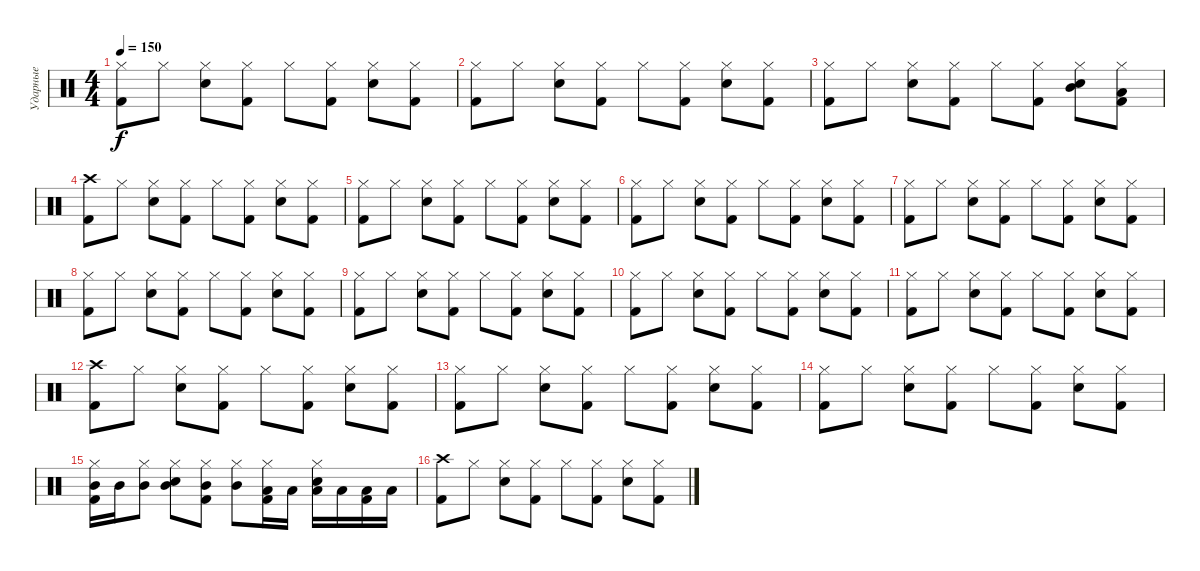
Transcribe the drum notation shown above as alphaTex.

\track ("Ударные" "Ударные") {instrument percussion}
\staff {score}
\articulation defaults
\ts (4 4)
\tempo 150
\clef neutral
\ks c
("Hi-Hat (closed)" "Kick (hit) 2").8{dy f} "Hi-Hat (closed)".8 ("Hi-Hat (closed)" "Snare (hit) 2").8 ("Hi-Hat (closed)" "Kick (hit) 2").8 "Hi-Hat (closed)".8 ("Hi-Hat (closed)" "Kick (hit) 2").8 ("Hi-Hat (closed)" "Snare (hit) 2").8 ("Hi-Hat (closed)" "Kick (hit) 2").8 |
("Hi-Hat (closed)" "Kick (hit) 2").8 "Hi-Hat (closed)".8 ("Hi-Hat (closed)" "Snare (hit) 2").8 ("Hi-Hat (closed)" "Kick (hit) 2").8 "Hi-Hat (closed)".8 ("Hi-Hat (closed)" "Kick (hit) 2").8 ("Hi-Hat (closed)" "Snare (hit) 2").8 ("Hi-Hat (closed)" "Kick (hit) 2").8 |
("Hi-Hat (closed)" "Kick (hit) 2").8 "Hi-Hat (closed)".8 ("Hi-Hat (closed)" "Snare (hit) 2").8 ("Hi-Hat (closed)" "Kick (hit) 2").8 "Hi-Hat (closed)".8 ("Hi-Hat (closed)" "Kick (hit) 2").8 ("Hi-Hat (closed)" "Mid Tom (hit)" "Snare (hit) 2").8 ("Hi-Hat (closed)" "Low Tom (hit)" "Kick (hit) 2").8 |
("Crash high (hit)" "Kick (hit) 2").8 "Hi-Hat (closed)".8 ("Snare (hit) 2" "Hi-Hat (closed)").8 ("Hi-Hat (closed)" "Kick (hit) 2").8 "Hi-Hat (closed)".8 ("Hi-Hat (closed)" "Kick (hit) 2").8 ("Snare (hit) 2" "Hi-Hat (closed)").8 ("Hi-Hat (closed)" "Kick (hit) 2").8 |
("Hi-Hat (closed)" "Kick (hit) 2").8 "Hi-Hat (closed)".8 ("Snare (hit) 2" "Hi-Hat (closed)").8 ("Hi-Hat (closed)" "Kick (hit) 2").8 "Hi-Hat (closed)".8 ("Hi-Hat (closed)" "Kick (hit) 2").8 ("Snare (hit) 2" "Hi-Hat (closed)").8 ("Hi-Hat (closed)" "Kick (hit) 2").8 |
("Hi-Hat (closed)" "Kick (hit) 2").8 "Hi-Hat (closed)".8 ("Snare (hit) 2" "Hi-Hat (closed)").8 ("Hi-Hat (closed)" "Kick (hit) 2").8 "Hi-Hat (closed)".8 ("Hi-Hat (closed)" "Kick (hit) 2").8 ("Snare (hit) 2" "Hi-Hat (closed)").8 ("Hi-Hat (closed)" "Kick (hit) 2").8 |
("Hi-Hat (closed)" "Kick (hit) 2").8 "Hi-Hat (closed)".8 ("Snare (hit) 2" "Hi-Hat (closed)").8 ("Hi-Hat (closed)" "Kick (hit) 2").8 "Hi-Hat (closed)".8 ("Hi-Hat (closed)" "Kick (hit) 2").8 ("Snare (hit) 2" "Hi-Hat (closed)").8 ("Hi-Hat (closed)" "Kick (hit) 2").8 |
("Hi-Hat (closed)" "Kick (hit) 2").8 "Hi-Hat (closed)".8 ("Snare (hit) 2" "Hi-Hat (closed)").8 ("Hi-Hat (closed)" "Kick (hit) 2").8 "Hi-Hat (closed)".8 ("Hi-Hat (closed)" "Kick (hit) 2").8 ("Snare (hit) 2" "Hi-Hat (closed)").8 ("Hi-Hat (closed)" "Kick (hit) 2").8 |
("Hi-Hat (closed)" "Kick (hit) 2").8 "Hi-Hat (closed)".8 ("Snare (hit) 2" "Hi-Hat (closed)").8 ("Hi-Hat (closed)" "Kick (hit) 2").8 "Hi-Hat (closed)".8 ("Hi-Hat (closed)" "Kick (hit) 2").8 ("Snare (hit) 2" "Hi-Hat (closed)").8 ("Hi-Hat (closed)" "Kick (hit) 2").8 |
("Hi-Hat (closed)" "Kick (hit) 2").8 "Hi-Hat (closed)".8 ("Snare (hit) 2" "Hi-Hat (closed)").8 ("Hi-Hat (closed)" "Kick (hit) 2").8 "Hi-Hat (closed)".8 ("Hi-Hat (closed)" "Kick (hit) 2").8 ("Snare (hit) 2" "Hi-Hat (closed)").8 ("Hi-Hat (closed)" "Kick (hit) 2").8 |
("Hi-Hat (closed)" "Kick (hit) 2").8 "Hi-Hat (closed)".8 ("Snare (hit) 2" "Hi-Hat (closed)").8 ("Hi-Hat (closed)" "Kick (hit) 2").8 "Hi-Hat (closed)".8 ("Hi-Hat (closed)" "Kick (hit) 2").8 ("Snare (hit) 2" "Hi-Hat (closed)").8 ("Hi-Hat (closed)" "Kick (hit) 2").8 |
("Crash high (hit)" "Kick (hit) 2").8 "Hi-Hat (closed)".8 ("Hi-Hat (closed)" "Snare (hit) 2").8 ("Hi-Hat (closed)" "Kick (hit) 2").8 "Hi-Hat (closed)".8 ("Hi-Hat (closed)" "Kick (hit) 2").8 ("Hi-Hat (closed)" "Snare (hit) 2").8 ("Hi-Hat (closed)" "Kick (hit) 2").8 |
("Hi-Hat (closed)" "Kick (hit) 2").8 "Hi-Hat (closed)".8 ("Hi-Hat (closed)" "Snare (hit) 2").8 ("Hi-Hat (closed)" "Kick (hit) 2").8 "Hi-Hat (closed)".8 ("Hi-Hat (closed)" "Kick (hit) 2").8 ("Hi-Hat (closed)" "Snare (hit) 2").8 ("Hi-Hat (closed)" "Kick (hit) 2").8 |
("Hi-Hat (closed)" "Kick (hit) 2").8 "Hi-Hat (closed)".8 ("Hi-Hat (closed)" "Snare (hit) 2").8 ("Hi-Hat (closed)" "Kick (hit) 2").8 "Hi-Hat (closed)".8 ("Hi-Hat (closed)" "Kick (hit) 2").8 ("Hi-Hat (closed)" "Snare (hit) 2").8 ("Hi-Hat (closed)" "Kick (hit) 2").8 |
("Mid Tom (hit)" "Hi-Hat (closed)" "Kick (hit) 2").16 "Mid Tom (hit)".16 ("Mid Tom (hit)" "Hi-Hat (closed)").8 ("Mid Tom (hit)" "Hi-Hat (closed)" "Snare (hit) 2").8 ("Mid Tom (hit)" "Hi-Hat (closed)" "Kick (hit) 2").8 ("Mid Tom (hit)" "Hi-Hat (closed)").8 ("Low Tom (hit)" "Hi-Hat (closed)" "Kick (hit) 2").16 "Low Tom (hit)".16 ("Low Tom (hit)" "Hi-Hat (closed)" "Snare (hit) 2").16 "Low Tom (hit)".16 ("Low Tom (hit)" "Kick (hit) 2").16 "Low Tom (hit)".16 |
("Crash high (hit)" "Kick (hit) 2").8 "Hi-Hat (closed)".8 ("Hi-Hat (closed)" "Snare (hit) 2").8 ("Hi-Hat (closed)" "Kick (hit) 2").8 "Hi-Hat (closed)".8 ("Hi-Hat (closed)" "Kick (hit) 2").8 ("Hi-Hat (closed)" "Snare (hit) 2").8 ("Hi-Hat (closed)" "Kick (hit) 2").8
